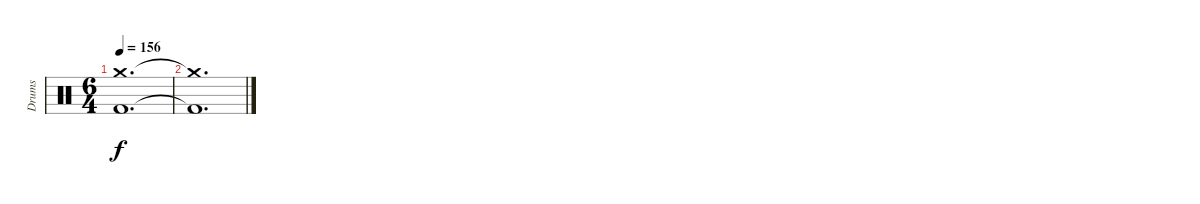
\track ("Drums" "Drums") {instrument percussion}
\staff {score}
\articulation defaults
\ts (6 4)
\tempo 156
\clef neutral
\ks c
("Crash medium (hit)" "Kick (hit) 2").1{d dy f} |
("Crash medium (hit)"{t} "Kick (hit) 2"{t}).1{d}
